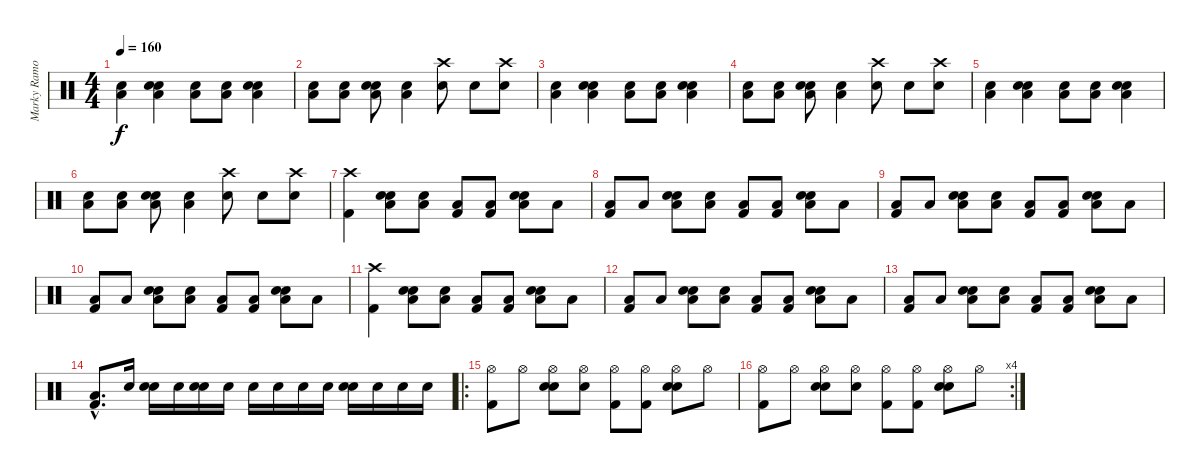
\track ("Marky Ramone" "Marky Ramo") {instrument percussion}
\staff {score}
\articulation defaults
\ts (4 4)
\tempo 160
\clef neutral
\ks c
("Electric Snare (hit)" "Low Floor Tom (hit)").4{dy f} ("Hand Clap (hit)" "Electric Snare (hit)" "Low Floor Tom (hit)").4 ("Electric Snare (hit)" "Low Floor Tom (hit)").8 ("Electric Snare (hit)" "Low Floor Tom (hit)").8 ("Hand Clap (hit)" "Electric Snare (hit)" "Low Floor Tom (hit)").4 |
("Electric Snare (hit)" "Low Floor Tom (hit)").8 ("Electric Snare (hit)" "Low Floor Tom (hit)").8 ("Hand Clap (hit)" "Electric Snare (hit)" "Low Floor Tom (hit)").8 ("Electric Snare (hit)" "Low Floor Tom (hit)").4 ("Crash high (hit)" "Electric Snare (hit)").8 "Hand Clap (hit)".8 ("Crash high (hit)" "Electric Snare (hit)").8 |
("Electric Snare (hit)" "Low Floor Tom (hit)").4 ("Hand Clap (hit)" "Electric Snare (hit)" "Low Floor Tom (hit)").4 ("Electric Snare (hit)" "Low Floor Tom (hit)").8 ("Electric Snare (hit)" "Low Floor Tom (hit)").8 ("Hand Clap (hit)" "Electric Snare (hit)" "Low Floor Tom (hit)").4 |
("Electric Snare (hit)" "Low Floor Tom (hit)").8 ("Electric Snare (hit)" "Low Floor Tom (hit)").8 ("Hand Clap (hit)" "Electric Snare (hit)" "Low Floor Tom (hit)").8 ("Electric Snare (hit)" "Low Floor Tom (hit)").4 ("Crash high (hit)" "Electric Snare (hit)").8 "Hand Clap (hit)".8 ("Crash high (hit)" "Electric Snare (hit)").8 |
("Electric Snare (hit)" "Low Floor Tom (hit)").4 ("Hand Clap (hit)" "Electric Snare (hit)" "Low Floor Tom (hit)").4 ("Electric Snare (hit)" "Low Floor Tom (hit)").8 ("Electric Snare (hit)" "Low Floor Tom (hit)").8 ("Hand Clap (hit)" "Electric Snare (hit)" "Low Floor Tom (hit)").4 |
("Electric Snare (hit)" "Low Floor Tom (hit)").8 ("Electric Snare (hit)" "Low Floor Tom (hit)").8 ("Hand Clap (hit)" "Electric Snare (hit)" "Low Floor Tom (hit)").8 ("Electric Snare (hit)" "Low Floor Tom (hit)").4 ("Crash high (hit)" "Electric Snare (hit)").8 "Hand Clap (hit)".8 ("Crash high (hit)" "Electric Snare (hit)").8 |
("Kick (hit) 2" "Crash high (hit)").4 ("Hand Clap (hit)" "Electric Snare (hit)" "Low Floor Tom (hit)").8 ("Hand Clap (hit)" "Low Floor Tom (hit)").8 ("Kick (hit) 2" "Low Floor Tom (hit)").8 ("Kick (hit) 2" "Low Floor Tom (hit)").8 ("Hand Clap (hit)" "Electric Snare (hit)" "Low Floor Tom (hit)").8 "Low Floor Tom (hit)".8 |
("Kick (hit) 2" "Low Floor Tom (hit)").8 "Low Floor Tom (hit)".8 ("Hand Clap (hit)" "Electric Snare (hit)" "Low Floor Tom (hit)").8 ("Hand Clap (hit)" "Low Floor Tom (hit)").8 ("Kick (hit) 2" "Low Floor Tom (hit)").8 ("Kick (hit) 2" "Low Floor Tom (hit)").8 ("Hand Clap (hit)" "Electric Snare (hit)" "Low Floor Tom (hit)").8 "Low Floor Tom (hit)".8 |
("Kick (hit) 2" "Low Floor Tom (hit)").8 "Low Floor Tom (hit)".8 ("Hand Clap (hit)" "Electric Snare (hit)" "Low Floor Tom (hit)").8 ("Hand Clap (hit)" "Low Floor Tom (hit)").8 ("Kick (hit) 2" "Low Floor Tom (hit)").8 ("Kick (hit) 2" "Low Floor Tom (hit)").8 ("Hand Clap (hit)" "Electric Snare (hit)" "Low Floor Tom (hit)").8 "Low Floor Tom (hit)".8 |
("Kick (hit) 2" "Low Floor Tom (hit)").8 "Low Floor Tom (hit)".8 ("Hand Clap (hit)" "Electric Snare (hit)" "Low Floor Tom (hit)").8 ("Hand Clap (hit)" "Low Floor Tom (hit)").8 ("Kick (hit) 2" "Low Floor Tom (hit)").8 ("Kick (hit) 2" "Low Floor Tom (hit)").8 ("Hand Clap (hit)" "Electric Snare (hit)" "Low Floor Tom (hit)").8 "Low Floor Tom (hit)".8 |
("Kick (hit) 2" "Crash high (hit)").4 ("Hand Clap (hit)" "Electric Snare (hit)" "Low Floor Tom (hit)").8 ("Hand Clap (hit)" "Low Floor Tom (hit)").8 ("Kick (hit) 2" "Low Floor Tom (hit)").8 ("Kick (hit) 2" "Low Floor Tom (hit)").8 ("Hand Clap (hit)" "Electric Snare (hit)" "Low Floor Tom (hit)").8 "Low Floor Tom (hit)".8 |
("Kick (hit) 2" "Low Floor Tom (hit)").8 "Low Floor Tom (hit)".8 ("Hand Clap (hit)" "Electric Snare (hit)" "Low Floor Tom (hit)").8 ("Hand Clap (hit)" "Low Floor Tom (hit)").8 ("Kick (hit) 2" "Low Floor Tom (hit)").8 ("Kick (hit) 2" "Low Floor Tom (hit)").8 ("Hand Clap (hit)" "Electric Snare (hit)" "Low Floor Tom (hit)").8 "Low Floor Tom (hit)".8 |
("Kick (hit) 2" "Low Floor Tom (hit)").8 "Low Floor Tom (hit)".8 ("Hand Clap (hit)" "Electric Snare (hit)" "Low Floor Tom (hit)").8 ("Hand Clap (hit)" "Low Floor Tom (hit)").8 ("Kick (hit) 2" "Low Floor Tom (hit)").8 ("Kick (hit) 2" "Low Floor Tom (hit)").8 ("Hand Clap (hit)" "Electric Snare (hit)" "Low Floor Tom (hit)").8 "Low Floor Tom (hit)".8 |
("Kick (hit) 2"{hac} "Low Floor Tom (hit)"{hac}).8{d} "Electric Snare (hit)".16 ("Hand Clap (hit)" "Electric Snare (hit)").16 "Electric Snare (hit)".16 ("Hand Clap (hit)" "Electric Snare (hit)").16 "Electric Snare (hit)".16 "Electric Snare (hit)".16 "Electric Snare (hit)".16 "Electric Snare (hit)".16 "Electric Snare (hit)".16 ("Hand Clap (hit)" "Electric Snare (hit)").16 "Electric Snare (hit)".16 "Electric Snare (hit)".16 "Electric Snare (hit)".16 |
\ro
("Kick (hit) 2" "Hi-Hat (open)").8 "Hi-Hat (open)".8 ("Hand Clap (hit)" "Electric Snare (hit)" "Hi-Hat (open)").8 ("Hand Clap (hit)" "Hi-Hat (open)").8 ("Kick (hit) 2" "Hi-Hat (open)").8 ("Kick (hit) 2" "Hi-Hat (open)").8 ("Hand Clap (hit)" "Electric Snare (hit)" "Hi-Hat (open)").8 "Hi-Hat (open)".8 |
\rc 4
("Kick (hit) 2" "Hi-Hat (open)").8 "Hi-Hat (open)".8 ("Hand Clap (hit)" "Electric Snare (hit)" "Hi-Hat (open)").8 ("Hand Clap (hit)" "Hi-Hat (open)").8 ("Kick (hit) 2" "Hi-Hat (open)").8 ("Kick (hit) 2" "Hi-Hat (open)").8 ("Hand Clap (hit)" "Electric Snare (hit)" "Hi-Hat (open)").8 "Hi-Hat (open)".8
